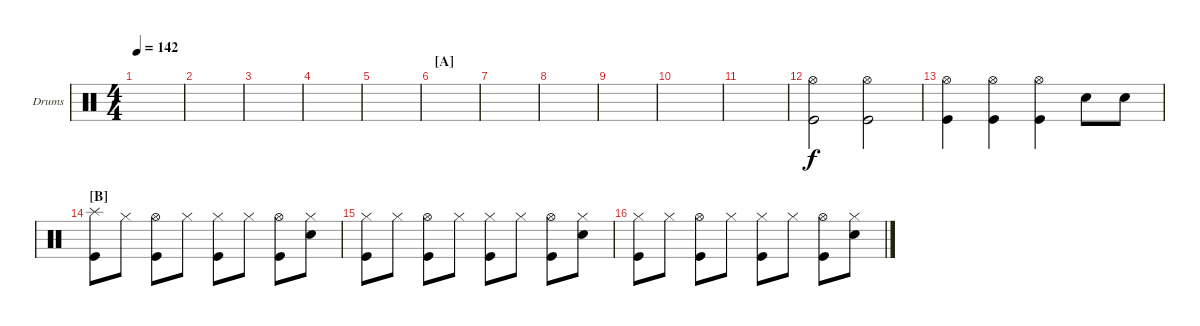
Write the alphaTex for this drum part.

\defaultSystemsLayout 4
\bracketExtendMode groupsimilarinstruments
\firstSystemTrackNameOrientation horizontal
\otherSystemsTrackNameOrientation horizontal
\track ("Drumkit" "Drums") {instrument percussion}
\staff {score}
\articulation defaults
\ts (4 4)
\tempo 142
\clef neutral
\ks c
|
|
|
|
|
\section ("A" "")
|
|
|
|
|
|
("Kick (hit)" "Hi-Hat (open)").2 ("Kick (hit)" "Hi-Hat (open)").2 |
("Kick (hit)" "Hi-Hat (open)").4 ("Kick (hit)" "Hi-Hat (open)").4 ("Kick (hit)" "Hi-Hat (open)").4 "Snare (hit) 2".8 "Snare (hit) 2".8 |
\section ("B" "")
("Kick (hit)" "Splash (hit)").8 "Hi-Hat (closed)".8 ("Hi-Hat (open)" "Kick (hit)").8 "Hi-Hat (closed)".8 ("Hi-Hat (closed)" "Kick (hit)").8 "Hi-Hat (closed)".8 ("Hi-Hat (open)" "Kick (hit)").8 ("Hi-Hat (closed)" "Snare (hit) 2").8 |
("Kick (hit)" "Hi-Hat (closed)").8 "Hi-Hat (closed)".8 ("Hi-Hat (open)" "Kick (hit)").8 "Hi-Hat (closed)".8 ("Hi-Hat (closed)" "Kick (hit)").8 "Hi-Hat (closed)".8 ("Hi-Hat (open)" "Kick (hit)").8 ("Hi-Hat (closed)" "Snare (hit) 2").8 |
("Kick (hit)" "Hi-Hat (closed)").8 "Hi-Hat (closed)".8 ("Hi-Hat (open)" "Kick (hit)").8 "Hi-Hat (closed)".8 ("Hi-Hat (closed)" "Kick (hit)").8 "Hi-Hat (closed)".8 ("Hi-Hat (open)" "Kick (hit)").8 ("Hi-Hat (closed)" "Snare (hit) 2").8
